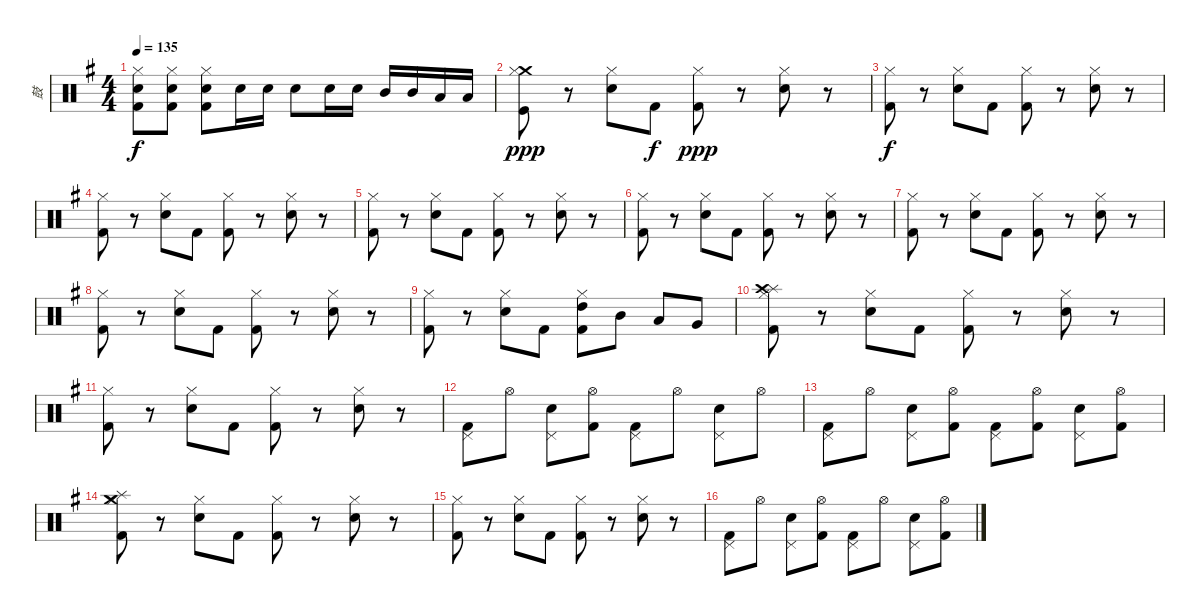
\track ("鼓" "鼓") {instrument percussion}
\staff {score}
\articulation defaults
\ts (4 4)
\tempo 135
\clef neutral
\ks g
("Hi-Hat (closed)" "Snare (hit) 2" "Kick (hit) 2").8{dy f} ("Hi-Hat (closed)" "Snare (hit) 2" "Kick (hit) 2").8 ("Hi-Hat (closed)" "Snare (hit) 2" "Kick (hit) 2").8 "Snare (hit) 2".16 "Snare (hit) 2".16 "Snare (hit) 2".8 "Snare (hit) 2".16 "Snare (hit) 2".16 "Mid Tom (hit)".16 "Mid Tom (hit)".16 "Low Tom (hit)".16 "Low Tom (hit)".16 |
("Crash medium (hit)" "Kick (hit)" "Hi-Hat (closed)").8{dy ppp} r.8 ("Snare (hit) 2" "Hi-Hat (closed)").8 "Kick (hit) 2".8{dy f} ("Kick (hit) 2" "Hi-Hat (closed)").8{dy ppp} r.8 ("Snare (hit) 2" "Hi-Hat (closed)").8 r.8 |
("Kick (hit) 2" "Hi-Hat (closed)").8{dy f} r.8 ("Snare (hit) 2" "Hi-Hat (closed)").8 "Kick (hit) 2".8 ("Kick (hit) 2" "Hi-Hat (closed)").8 r.8 ("Snare (hit) 2" "Hi-Hat (closed)").8 r.8 |
("Kick (hit) 2" "Hi-Hat (closed)").8 r.8 ("Snare (hit) 2" "Hi-Hat (closed)").8 "Kick (hit) 2".8 ("Kick (hit) 2" "Hi-Hat (closed)").8 r.8 ("Snare (hit) 2" "Hi-Hat (closed)").8 r.8 |
("Kick (hit) 2" "Hi-Hat (closed)").8 r.8 ("Snare (hit) 2" "Hi-Hat (closed)").8 "Kick (hit) 2".8 ("Kick (hit) 2" "Hi-Hat (closed)").8 r.8 ("Snare (hit) 2" "Hi-Hat (closed)").8 r.8 |
("Kick (hit) 2" "Hi-Hat (closed)").8 r.8 ("Snare (hit) 2" "Hi-Hat (closed)").8 "Kick (hit) 2".8 ("Kick (hit) 2" "Hi-Hat (closed)").8 r.8 ("Snare (hit) 2" "Hi-Hat (closed)").8 r.8 |
("Kick (hit) 2" "Hi-Hat (closed)").8 r.8 ("Snare (hit) 2" "Hi-Hat (closed)").8 "Kick (hit) 2".8 ("Kick (hit) 2" "Hi-Hat (closed)").8 r.8 ("Snare (hit) 2" "Hi-Hat (closed)").8 r.8 |
("Kick (hit) 2" "Hi-Hat (closed)").8 r.8 ("Snare (hit) 2" "Hi-Hat (closed)").8 "Kick (hit) 2".8 ("Kick (hit) 2" "Hi-Hat (closed)").8 r.8 ("Snare (hit) 2" "Hi-Hat (closed)").8 r.8 |
("Kick (hit) 2" "Hi-Hat (closed)").8 r.8 ("Snare (hit) 2" "Hi-Hat (closed)").8 "Kick (hit) 2".8 ("High Tom (hit)" "Kick (hit) 2" "Hi-Hat (closed)").8 "Mid Tom (hit)".8 "Low Tom (hit)".8 "Very Low Tom (hit)".8 |
("Splash (hit)" "Crash high (hit)" "Kick (hit) 2" "Hi-Hat (closed)").8 r.8 ("Snare (hit) 2" "Hi-Hat (closed)").8 "Kick (hit) 2".8 ("Kick (hit) 2" "Hi-Hat (closed)").8 r.8 ("Snare (hit) 2" "Hi-Hat (closed)").8 r.8 |
("Kick (hit) 2" "Hi-Hat (closed)").8 r.8 ("Snare (hit) 2" "Hi-Hat (closed)").8 "Kick (hit) 2".8 ("Kick (hit) 2" "Hi-Hat (closed)").8 r.8 ("Snare (hit) 2" "Hi-Hat (closed)").8 r.8 |
("Kick (hit) 2" "Pedal Hi-Hat (hit)").8 "Hi-Hat (open)".8 ("Snare (hit) 2" "Pedal Hi-Hat (hit)").8 ("Kick (hit) 2" "Hi-Hat (open)").8 ("Kick (hit) 2" "Pedal Hi-Hat (hit)").8 "Hi-Hat (open)".8 ("Snare (hit) 2" "Pedal Hi-Hat (hit)").8 "Hi-Hat (open)".8 |
("Kick (hit) 2" "Pedal Hi-Hat (hit)").8 "Hi-Hat (open)".8 ("Snare (hit) 2" "Pedal Hi-Hat (hit)").8 ("Kick (hit) 2" "Hi-Hat (open)").8 ("Kick (hit) 2" "Pedal Hi-Hat (hit)").8 ("Kick (hit) 2" "Hi-Hat (open)").8 ("Snare (hit) 2" "Pedal Hi-Hat (hit)").8 ("Kick (hit) 2" "Hi-Hat (open)").8 |
("Crash medium (hit)" "Splash (hit)" "Kick (hit) 2" "Hi-Hat (closed)").8 r.8 ("Snare (hit) 2" "Hi-Hat (closed)").8 "Kick (hit) 2".8 ("Kick (hit) 2" "Hi-Hat (closed)").8 r.8 ("Snare (hit) 2" "Hi-Hat (closed)").8 r.8 |
("Kick (hit) 2" "Hi-Hat (closed)").8 r.8 ("Snare (hit) 2" "Hi-Hat (closed)").8 "Kick (hit) 2".8 ("Kick (hit) 2" "Hi-Hat (closed)").8 r.8 ("Snare (hit) 2" "Hi-Hat (closed)").8 r.8 |
("Kick (hit) 2" "Pedal Hi-Hat (hit)").8 "Hi-Hat (open)".8 ("Snare (hit) 2" "Pedal Hi-Hat (hit)").8 ("Kick (hit) 2" "Hi-Hat (open)").8 ("Kick (hit) 2" "Pedal Hi-Hat (hit)").8 "Hi-Hat (open)".8 ("Snare (hit) 2" "Pedal Hi-Hat (hit)").8 ("Kick (hit) 2" "Hi-Hat (open)").8
